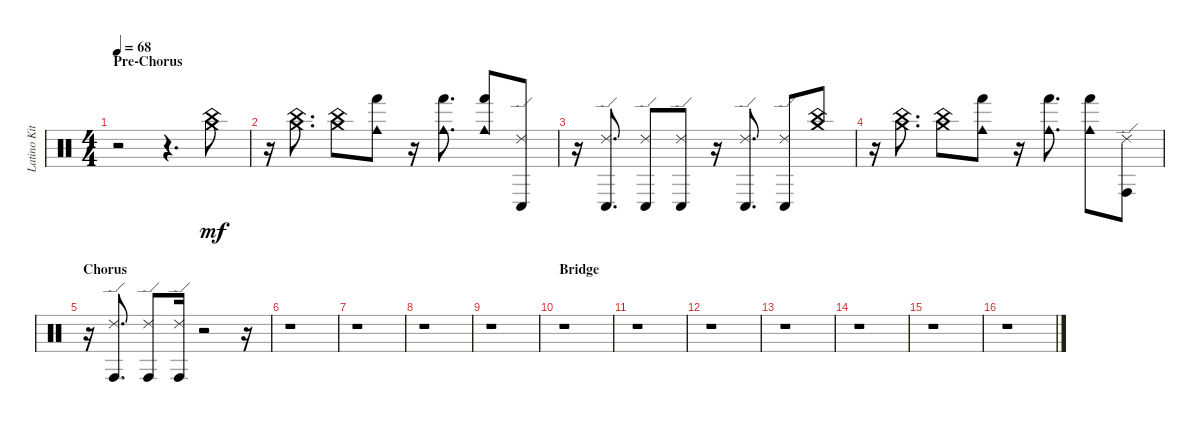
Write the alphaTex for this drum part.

\track ("Latino Kit" "Latino Kit") {instrument percussion}
\staff {score}
\articulation defaults
\ts (4 4)
\section ("" "Pre-Chorus")
\tempo 68
\clef neutral
\ks aminor
r.2{dy mf} r.4{d} ("China (hit)" "Crash medium (hit)").8 |
r.16 ("China (hit)" "Crash medium (hit)").8{d} ("China (hit)" "Crash medium (hit)").8 ("Cowbell medium (hit)" "Hand (hit)").8 r.16 ("Cowbell medium (hit)" "Hand (hit)").8{d} ("Cowbell medium (hit)" "Hand (hit)").8 ("Ride (edge) 2" "Conga low (hit)").8 |
r.16 ("Ride (edge) 2" "Conga low (hit)").8{d} ("Ride (edge) 2" "Conga low (hit)").8 ("Ride (edge) 2" "Conga low (hit)").8 r.16 ("Ride (edge) 2" "Conga low (hit)").8{d} ("Ride (edge) 2" "Conga low (hit)").8 ("China (hit)" "Crash medium (hit)").8 |
r.16 ("China (hit)" "Crash medium (hit)").8{d} ("China (hit)" "Crash medium (hit)").8 ("Cowbell medium (hit)" "Hand (hit)").8 r.16 ("Cowbell medium (hit)" "Hand (hit)").8{d} ("Cowbell medium (hit)" "Hand (hit)").8 ("Ride (edge) 2" "Conga high (hit)").8 |
\section ("" "Chorus")
r.16 ("Ride (edge) 2" "Conga high (hit)").8{d} ("Ride (edge) 2" "Conga high (hit)").8 ("Ride (edge) 2" "Conga high (hit)").16 r.2 r.16 |
r.1 |
r.1 |
r.1 |
r.1 |
\section ("" "Bridge")
r.1 |
r.1 |
r.1 |
r.1 |
r.1 |
r.1 |
r.1
